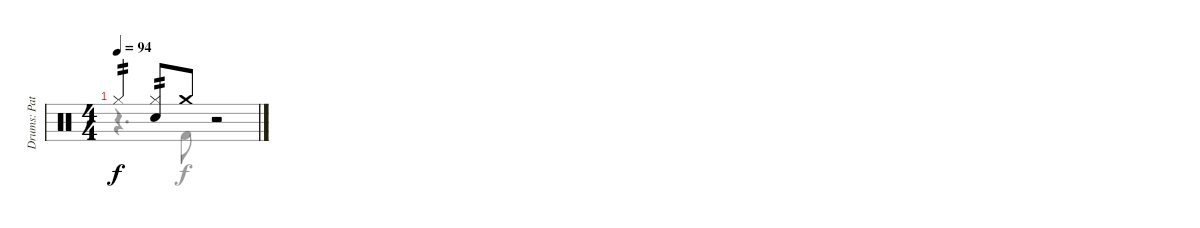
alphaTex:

\track ("Drums: Pat" "Drums: Pat") {instrument percussion}
\staff {score}
\articulation defaults
\voice
\ts (4 4)
\tempo 94
\clef neutral
\ks c "Hi-Hat (closed)".4{tp 2 dy f}
("Hi-Hat (closed)" "Electric Snare (hit)").8{tp 2} "Crash medium (hit)".8 r.2
\voice
\clef neutral
\ottava regular
\simile none
\ks c
r.4{d dy f} "Kick (hit) 2".8 r.2
